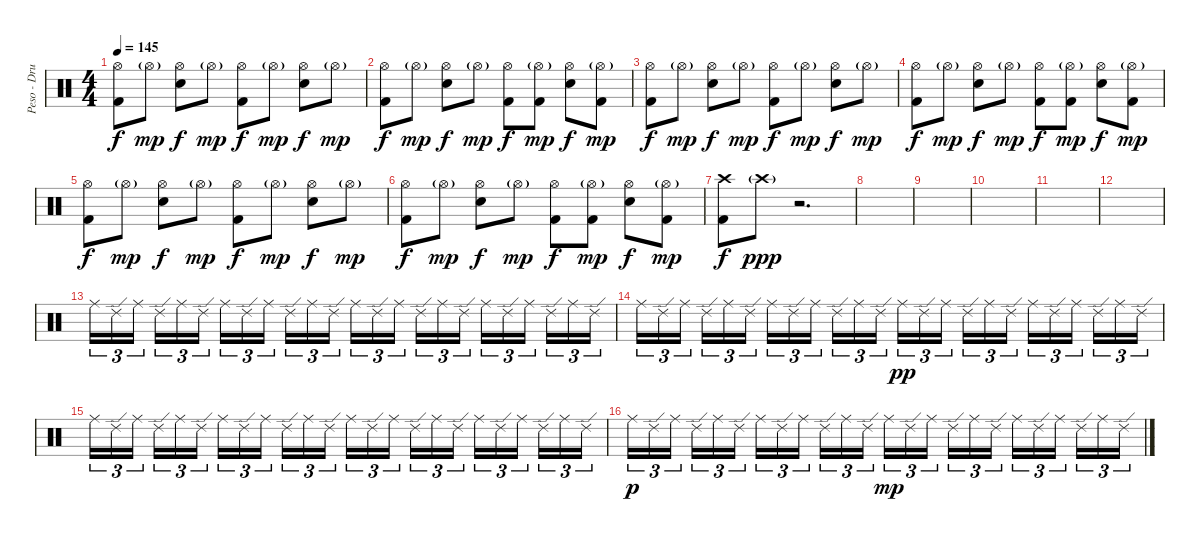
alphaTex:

\track ("Peso - Drums" "Peso - Dru") {instrument percussion}
\staff {score}
\articulation defaults
\ts (4 4)
\tempo 145
\clef neutral
\ks c
("Hi-Hat (open)" "Kick (hit) 2").8{dy f} "Hi-Hat (open)"{g}.8{dy mp} ("Hi-Hat (open)" "Electric Snare (hit)").8{dy f} "Hi-Hat (open)"{g}.8{dy mp} ("Hi-Hat (open)" "Kick (hit) 2").8{dy f} "Hi-Hat (open)"{g}.8{dy mp} ("Hi-Hat (open)" "Electric Snare (hit)").8{dy f} "Hi-Hat (open)"{g}.8{dy mp} |
("Hi-Hat (open)" "Kick (hit) 2").8{dy f} "Hi-Hat (open)"{g}.8{dy mp} ("Hi-Hat (open)" "Electric Snare (hit)").8{dy f} "Hi-Hat (open)"{g}.8{dy mp} ("Hi-Hat (open)" "Kick (hit) 2").8{dy f} ("Hi-Hat (open)"{g} "Kick (hit) 2").8{dy mp} ("Hi-Hat (open)" "Electric Snare (hit)").8{dy f} ("Hi-Hat (open)"{g} "Kick (hit) 2").8{dy mp} |
("Hi-Hat (open)" "Kick (hit) 2").8{dy f} "Hi-Hat (open)"{g}.8{dy mp} ("Hi-Hat (open)" "Electric Snare (hit)").8{dy f} "Hi-Hat (open)"{g}.8{dy mp} ("Hi-Hat (open)" "Kick (hit) 2").8{dy f} "Hi-Hat (open)"{g}.8{dy mp} ("Hi-Hat (open)" "Electric Snare (hit)").8{dy f} "Hi-Hat (open)"{g}.8{dy mp} |
("Hi-Hat (open)" "Kick (hit) 2").8{dy f} "Hi-Hat (open)"{g}.8{dy mp} ("Hi-Hat (open)" "Electric Snare (hit)").8{dy f} "Hi-Hat (open)"{g}.8{dy mp} ("Hi-Hat (open)" "Kick (hit) 2").8{dy f} ("Hi-Hat (open)"{g} "Kick (hit) 2").8{dy mp} ("Hi-Hat (open)" "Electric Snare (hit)").8{dy f} ("Hi-Hat (open)"{g} "Kick (hit) 2").8{dy mp} |
("Hi-Hat (open)" "Kick (hit) 2").8{dy f} "Hi-Hat (open)"{g}.8{dy mp} ("Hi-Hat (open)" "Electric Snare (hit)").8{dy f} "Hi-Hat (open)"{g}.8{dy mp} ("Hi-Hat (open)" "Kick (hit) 2").8{dy f} "Hi-Hat (open)"{g}.8{dy mp} ("Hi-Hat (open)" "Electric Snare (hit)").8{dy f} "Hi-Hat (open)"{g}.8{dy mp} |
("Hi-Hat (open)" "Kick (hit) 2").8{dy f} "Hi-Hat (open)"{g}.8{dy mp} ("Hi-Hat (open)" "Electric Snare (hit)").8{dy f} "Hi-Hat (open)"{g}.8{dy mp} ("Hi-Hat (open)" "Kick (hit) 2").8{dy f} ("Hi-Hat (open)"{g} "Kick (hit) 2").8{dy mp} ("Hi-Hat (open)" "Electric Snare (hit)").8{dy f} ("Hi-Hat (open)"{g} "Kick (hit) 2").8{dy mp} |
("Crash high (hit)" "Kick (hit) 2").8{dy f} "Crash high (hit)"{g}.8{dy ppp} r.2{d} |
|
|
|
|
|
"Ride (middle)".16{tu (3 2)} "Ride (edge) 2".16{tu (3 2)} "Ride (middle)".16{tu (3 2) beam splitsecondary} "Ride (edge) 2".16{tu (3 2)} "Ride (middle)".16{tu (3 2)} "Ride (edge) 2".16{tu (3 2)} "Ride (middle)".16{tu (3 2)} "Ride (edge) 2".16{tu (3 2)} "Ride (middle)".16{tu (3 2) beam splitsecondary} "Ride (edge) 2".16{tu (3 2)} "Ride (middle)".16{tu (3 2)} "Ride (edge) 2".16{tu (3 2)} "Ride (middle)".16{tu (3 2)} "Ride (edge) 2".16{tu (3 2)} "Ride (middle)".16{tu (3 2) beam splitsecondary} "Ride (edge) 2".16{tu (3 2)} "Ride (middle)".16{tu (3 2)} "Ride (edge) 2".16{tu (3 2)} "Ride (middle)".16{tu (3 2)} "Ride (edge) 2".16{tu (3 2)} "Ride (middle)".16{tu (3 2) beam splitsecondary} "Ride (edge) 2".16{tu (3 2)} "Ride (middle)".16{tu (3 2)} "Ride (edge) 2".16{tu (3 2)} |
"Ride (middle)".16{tu (3 2)} "Ride (edge) 2".16{tu (3 2)} "Ride (middle)".16{tu (3 2) beam splitsecondary} "Ride (edge) 2".16{tu (3 2)} "Ride (middle)".16{tu (3 2)} "Ride (edge) 2".16{tu (3 2)} "Ride (middle)".16{tu (3 2)} "Ride (edge) 2".16{tu (3 2)} "Ride (middle)".16{tu (3 2) beam splitsecondary} "Ride (edge) 2".16{tu (3 2)} "Ride (middle)".16{tu (3 2)} "Ride (edge) 2".16{tu (3 2)} "Ride (middle)".16{tu (3 2) dy pp} "Ride (edge) 2".16{tu (3 2)} "Ride (middle)".16{tu (3 2) beam splitsecondary} "Ride (edge) 2".16{tu (3 2)} "Ride (middle)".16{tu (3 2)} "Ride (edge) 2".16{tu (3 2)} "Ride (middle)".16{tu (3 2)} "Ride (edge) 2".16{tu (3 2)} "Ride (middle)".16{tu (3 2) beam splitsecondary} "Ride (edge) 2".16{tu (3 2)} "Ride (middle)".16{tu (3 2)} "Ride (edge) 2".16{tu (3 2)} |
"Ride (middle)".16{tu (3 2)} "Ride (edge) 2".16{tu (3 2)} "Ride (middle)".16{tu (3 2) beam splitsecondary} "Ride (edge) 2".16{tu (3 2)} "Ride (middle)".16{tu (3 2)} "Ride (edge) 2".16{tu (3 2)} "Ride (middle)".16{tu (3 2)} "Ride (edge) 2".16{tu (3 2)} "Ride (middle)".16{tu (3 2) beam splitsecondary} "Ride (edge) 2".16{tu (3 2)} "Ride (middle)".16{tu (3 2)} "Ride (edge) 2".16{tu (3 2)} "Ride (middle)".16{tu (3 2)} "Ride (edge) 2".16{tu (3 2)} "Ride (middle)".16{tu (3 2) beam splitsecondary} "Ride (edge) 2".16{tu (3 2)} "Ride (middle)".16{tu (3 2)} "Ride (edge) 2".16{tu (3 2)} "Ride (middle)".16{tu (3 2)} "Ride (edge) 2".16{tu (3 2)} "Ride (middle)".16{tu (3 2) beam splitsecondary} "Ride (edge) 2".16{tu (3 2)} "Ride (middle)".16{tu (3 2)} "Ride (edge) 2".16{tu (3 2)} |
"Ride (middle)".16{tu (3 2) dy p} "Ride (edge) 2".16{tu (3 2)} "Ride (middle)".16{tu (3 2) beam splitsecondary} "Ride (edge) 2".16{tu (3 2)} "Ride (middle)".16{tu (3 2)} "Ride (edge) 2".16{tu (3 2)} "Ride (middle)".16{tu (3 2)} "Ride (edge) 2".16{tu (3 2)} "Ride (middle)".16{tu (3 2) beam splitsecondary} "Ride (edge) 2".16{tu (3 2)} "Ride (middle)".16{tu (3 2)} "Ride (edge) 2".16{tu (3 2)} "Ride (middle)".16{tu (3 2) dy mp} "Ride (edge) 2".16{tu (3 2)} "Ride (middle)".16{tu (3 2) beam splitsecondary} "Ride (edge) 2".16{tu (3 2)} "Ride (middle)".16{tu (3 2)} "Ride (edge) 2".16{tu (3 2)} "Ride (middle)".16{tu (3 2)} "Ride (edge) 2".16{tu (3 2)} "Ride (middle)".16{tu (3 2) beam splitsecondary} "Ride (edge) 2".16{tu (3 2)} "Ride (middle)".16{tu (3 2)} "Ride (edge) 2".16{tu (3 2)}
